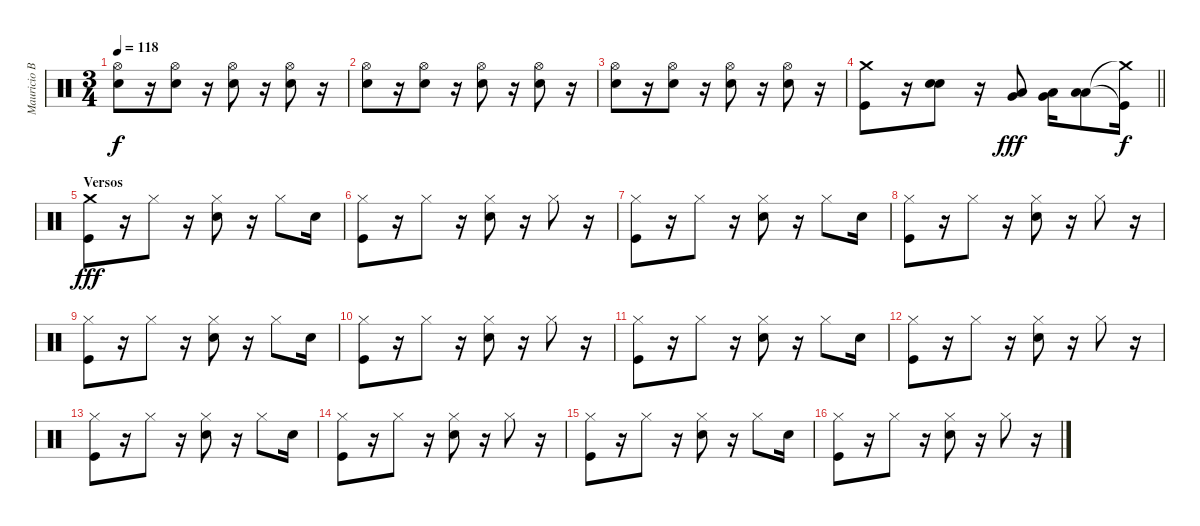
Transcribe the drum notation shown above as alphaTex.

\track ("Mauricio Basualto" "Mauricio B") {instrument percussion}
\staff {score}
\articulation defaults
\ts (3 4)
\tempo 118
\clef neutral
\ks c
("Hi-Hat (open)" "Electric Snare (hit)").8{dy f} r.16 ("Hi-Hat (open)" "Electric Snare (hit)").8 r.16 ("Hi-Hat (open)" "Electric Snare (hit)").8 r.16 ("Hi-Hat (open)" "Electric Snare (hit)").8 r.16 |
("Hi-Hat (open)" "Electric Snare (hit)").8 r.16 ("Hi-Hat (open)" "Electric Snare (hit)").8 r.16 ("Hi-Hat (open)" "Electric Snare (hit)").8 r.16 ("Hi-Hat (open)" "Electric Snare (hit)").8 r.16 |
("Hi-Hat (open)" "Electric Snare (hit)").8 r.16 ("Hi-Hat (open)" "Electric Snare (hit)").8 r.16 ("Hi-Hat (open)" "Electric Snare (hit)").8 r.16 ("Hi-Hat (open)" "Electric Snare (hit)").8 r.16 |
\barLineRight lightlight
("Kick (hit)" "Crash medium (hit)").8 r.16 ("Snare (hit) 2" "Electric Snare (hit)").8 r.16 ("Low Tom (hit)" "Very Low Tom (hit)").8{dy fff} ("Low Floor Tom (hit)" "Very Low Tom (hit)").16 ("Low Floor Tom (hit)" "Low Floor Tom (hit)").8 ("Crash medium (hit)"{t} "Kick (hit)"{t}).16{dy f} |
\section ("" "Versos")
("Crash medium (hit)" "Kick (hit)").8{dy fff} r.16 "Hi-Hat (closed)".8 r.16 ("Hi-Hat (closed)" "Snare (hit) 2").8 r.16 "Hi-Hat (closed)".8 "Snare (hit) 2".16 |
("Hi-Hat (closed)" "Kick (hit)").8 r.16 "Hi-Hat (closed)".8 r.16 ("Hi-Hat (closed)" "Snare (hit) 2").8 r.16 "Hi-Hat (closed)".8 r.16 |
("Hi-Hat (closed)" "Kick (hit)").8 r.16 "Hi-Hat (closed)".8 r.16 ("Hi-Hat (closed)" "Snare (hit) 2").8 r.16 "Hi-Hat (closed)".8 "Snare (hit) 2".16 |
("Hi-Hat (closed)" "Kick (hit)").8 r.16 "Hi-Hat (closed)".8 r.16 ("Hi-Hat (closed)" "Snare (hit) 2").8 r.16 "Hi-Hat (closed)".8 r.16 |
("Hi-Hat (closed)" "Kick (hit)").8 r.16 "Hi-Hat (closed)".8 r.16 ("Hi-Hat (closed)" "Snare (hit) 2").8 r.16 "Hi-Hat (closed)".8 "Snare (hit) 2".16 |
("Hi-Hat (closed)" "Kick (hit)").8 r.16 "Hi-Hat (closed)".8 r.16 ("Hi-Hat (closed)" "Snare (hit) 2").8 r.16 "Hi-Hat (closed)".8 r.16 |
("Hi-Hat (closed)" "Kick (hit)").8 r.16 "Hi-Hat (closed)".8 r.16 ("Hi-Hat (closed)" "Snare (hit) 2").8 r.16 "Hi-Hat (closed)".8 "Snare (hit) 2".16 |
("Hi-Hat (closed)" "Kick (hit)").8 r.16 "Hi-Hat (closed)".8 r.16 ("Hi-Hat (closed)" "Snare (hit) 2").8 r.16 "Hi-Hat (closed)".8 r.16 |
("Hi-Hat (closed)" "Kick (hit)").8 r.16 "Hi-Hat (closed)".8 r.16 ("Hi-Hat (closed)" "Snare (hit) 2").8 r.16 "Hi-Hat (closed)".8 "Snare (hit) 2".16 |
("Hi-Hat (closed)" "Kick (hit)").8 r.16 "Hi-Hat (closed)".8 r.16 ("Hi-Hat (closed)" "Snare (hit) 2").8 r.16 "Hi-Hat (closed)".8 r.16 |
("Hi-Hat (closed)" "Kick (hit)").8 r.16 "Hi-Hat (closed)".8 r.16 ("Hi-Hat (closed)" "Snare (hit) 2").8 r.16 "Hi-Hat (closed)".8 "Snare (hit) 2".16 |
("Hi-Hat (closed)" "Kick (hit)").8 r.16 "Hi-Hat (closed)".8 r.16 ("Hi-Hat (closed)" "Snare (hit) 2").8 r.16 "Hi-Hat (closed)".8 r.16
